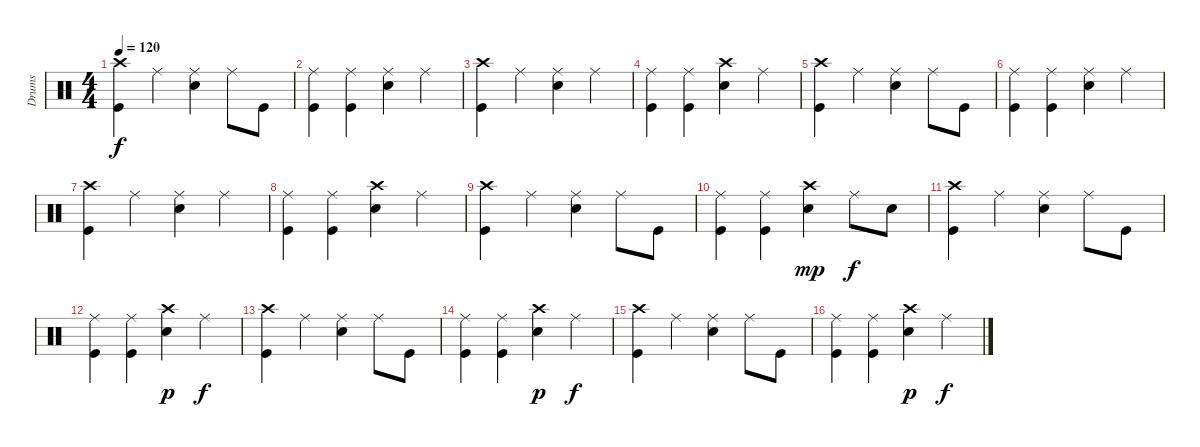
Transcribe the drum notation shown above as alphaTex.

\track ("Drums" "Drums") {instrument percussion}
\staff {score}
\articulation defaults
\ts (4 4)
\tempo 120
\clef neutral
\ks c
("Crash high (hit)" "Kick (hit)").4{dy f} "Ride (middle)".4 ("Ride (middle)" "Snare (hit) 2").4 "Ride (middle)".8 "Kick (hit)".8 |
("Ride (middle)" "Kick (hit)").4 ("Ride (middle)" "Kick (hit)").4 ("Ride (middle)" "Snare (hit) 2").4 "Ride (middle)".4 |
("Crash high (hit)" "Kick (hit)").4 "Ride (middle)".4 ("Ride (middle)" "Snare (hit) 2").4 "Ride (middle)".4 |
("Ride (middle)" "Kick (hit)").4 ("Ride (middle)" "Kick (hit)").4 ("Crash high (hit)" "Snare (hit) 2").4 "Ride (middle)".4 |
("Crash high (hit)" "Kick (hit)").4 "Ride (middle)".4 ("Ride (middle)" "Snare (hit) 2").4 "Ride (middle)".8 "Kick (hit)".8 |
("Ride (middle)" "Kick (hit)").4 ("Ride (middle)" "Kick (hit)").4 ("Ride (middle)" "Snare (hit) 2").4 "Ride (middle)".4 |
("Crash high (hit)" "Kick (hit)").4 "Ride (middle)".4 ("Ride (middle)" "Snare (hit) 2").4 "Ride (middle)".4 |
("Ride (middle)" "Kick (hit)").4 ("Ride (middle)" "Kick (hit)").4 ("Crash high (hit)" "Snare (hit) 2").4 "Ride (middle)".4 |
("Crash high (hit)" "Kick (hit)").4 "Ride (middle)".4 ("Ride (middle)" "Snare (hit) 2").4 "Ride (middle)".8 "Kick (hit)".8 |
("Ride (middle)" "Kick (hit)").4 ("Ride (middle)" "Kick (hit)").4 ("Crash high (hit)" "Snare (hit) 2").4{dy mp} "Ride (middle)".8{dy f} "Snare (hit) 2".8 |
("Crash high (hit)" "Kick (hit)").4 "Ride (middle)".4 ("Ride (middle)" "Snare (hit) 2").4 "Ride (middle)".8 "Kick (hit)".8 |
("Ride (middle)" "Kick (hit)").4 ("Ride (middle)" "Kick (hit)").4 ("Crash high (hit)" "Snare (hit) 2").4{dy p} "Ride (middle)".4{dy f} |
("Crash high (hit)" "Kick (hit)").4 "Ride (middle)".4 ("Ride (middle)" "Snare (hit) 2").4 "Ride (middle)".8 "Kick (hit)".8 |
("Ride (middle)" "Kick (hit)").4 ("Ride (middle)" "Kick (hit)").4 ("Crash high (hit)" "Snare (hit) 2").4{dy p} "Ride (middle)".4{dy f} |
("Crash high (hit)" "Kick (hit)").4 "Ride (middle)".4 ("Ride (middle)" "Snare (hit) 2").4 "Ride (middle)".8 "Kick (hit)".8 |
("Ride (middle)" "Kick (hit)").4 ("Ride (middle)" "Kick (hit)").4 ("Crash high (hit)" "Snare (hit) 2").4{dy p} "Ride (middle)".4{dy f}
